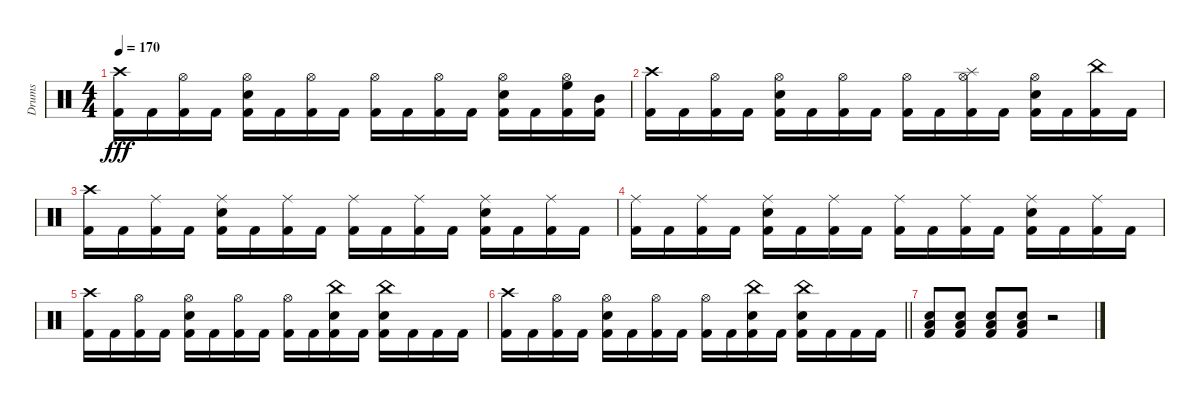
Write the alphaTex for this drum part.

\track ("Drums" "Drums") {instrument percussion}
\staff {score}
\articulation defaults
\ts (4 4)
\tempo 170
\clef neutral
\ks c
("Crash high (hit)" "Kick (hit) 2").16{dy fff} "Kick (hit) 2".16 ("Hi-Hat (open)" "Kick (hit) 2").16 "Kick (hit) 2".16 ("Snare (hit) 2" "Hi-Hat (open)" "Kick (hit) 2").16 "Kick (hit) 2".16 ("Hi-Hat (open)" "Kick (hit) 2").16 "Kick (hit) 2".16 ("Hi-Hat (open)" "Kick (hit) 2").16 "Kick (hit) 2".16 ("Hi-Hat (open)" "Kick (hit) 2").16 "Kick (hit) 2".16 ("Snare (hit) 2" "Hi-Hat (open)" "Kick (hit) 2").16 "Kick (hit) 2".16 ("High Floor Tom (hit)" "Hi-Hat (open)" "Kick (hit) 2").16 ("Mid Tom (hit)" "Kick (hit) 2").16 |
("Crash high (hit)" "Kick (hit) 2").16 "Kick (hit) 2".16 ("Hi-Hat (open)" "Kick (hit) 2").16 "Kick (hit) 2".16 ("Snare (hit) 2" "Hi-Hat (open)" "Kick (hit) 2").16 "Kick (hit) 2".16 ("Hi-Hat (open)" "Kick (hit) 2").16 "Kick (hit) 2".16 ("Hi-Hat (open)" "Kick (hit) 2").16 "Kick (hit) 2".16 ("Splash (hit)" "Hi-Hat (open)" "Kick (hit) 2").16 "Kick (hit) 2".16 ("Snare (hit) 2" "Hi-Hat (open)" "Kick (hit) 2").16 "Kick (hit) 2".16 ("China (hit)" "Kick (hit) 2").16 "Kick (hit) 2".16 |
("Crash high (hit)" "Kick (hit) 2").16 "Kick (hit) 2".16 ("Ride (middle)" "Kick (hit) 2").16 "Kick (hit) 2".16 ("Ride (middle)" "Snare (hit) 2" "Kick (hit) 2").16 "Kick (hit) 2".16 ("Ride (middle)" "Kick (hit) 2").16 "Kick (hit) 2".16 ("Ride (middle)" "Kick (hit) 2").16 "Kick (hit) 2".16 ("Ride (middle)" "Kick (hit) 2").16 "Kick (hit) 2".16 ("Ride (middle)" "Snare (hit) 2" "Kick (hit) 2").16 "Kick (hit) 2".16 ("Ride (middle)" "Kick (hit) 2").16 "Kick (hit) 2".16 |
("Ride (middle)" "Kick (hit) 2").16 "Kick (hit) 2".16 ("Ride (middle)" "Kick (hit) 2").16 "Kick (hit) 2".16 ("Ride (middle)" "Snare (hit) 2" "Kick (hit) 2").16 "Kick (hit) 2".16 ("Ride (middle)" "Kick (hit) 2").16 "Kick (hit) 2".16 ("Ride (middle)" "Kick (hit) 2").16 "Kick (hit) 2".16 ("Ride (middle)" "Kick (hit) 2").16 "Kick (hit) 2".16 ("Ride (middle)" "Snare (hit) 2" "Kick (hit) 2").16 "Kick (hit) 2".16 ("Ride (middle)" "Kick (hit) 2").16 "Kick (hit) 2".16 |
("Crash high (hit)" "Kick (hit) 2").16 "Kick (hit) 2".16 ("Hi-Hat (open)" "Kick (hit) 2").16 "Kick (hit) 2".16 ("Snare (hit) 2" "Hi-Hat (open)" "Kick (hit) 2").16 "Kick (hit) 2".16 ("Hi-Hat (open)" "Kick (hit) 2").16 "Kick (hit) 2".16 ("Hi-Hat (open)" "Kick (hit) 2").16 "Kick (hit) 2".16 ("China (hit)" "Snare (hit) 2" "Kick (hit) 2").16 "Kick (hit) 2".16 ("China (hit)" "Snare (hit) 2" "Kick (hit) 2").16 "Kick (hit) 2".16 "Kick (hit) 2".16 "Kick (hit) 2".16 |
\barLineRight lightlight
("Crash high (hit)" "Kick (hit) 2").16 "Kick (hit) 2".16 ("Hi-Hat (open)" "Kick (hit) 2").16 "Kick (hit) 2".16 ("Snare (hit) 2" "Hi-Hat (open)" "Kick (hit) 2").16 "Kick (hit) 2".16 ("Hi-Hat (open)" "Kick (hit) 2").16 "Kick (hit) 2".16 ("Hi-Hat (open)" "Kick (hit) 2").16 "Kick (hit) 2".16 ("China (hit)" "Snare (hit) 2" "Kick (hit) 2").16 "Kick (hit) 2".16 ("China (hit)" "Snare (hit) 2" "Kick (hit) 2").16 "Kick (hit) 2".16 "Kick (hit) 2".16 "Kick (hit) 2".16 |
("Snare (hit) 2" "Low Floor Tom (hit)" "Kick (hit) 2").8 ("Snare (hit) 2" "Low Floor Tom (hit)" "Kick (hit) 2").8 ("Snare (hit) 2" "Low Floor Tom (hit)" "Kick (hit) 2").8 ("Snare (hit) 2" "Low Floor Tom (hit)" "Kick (hit) 2").8 r.2
